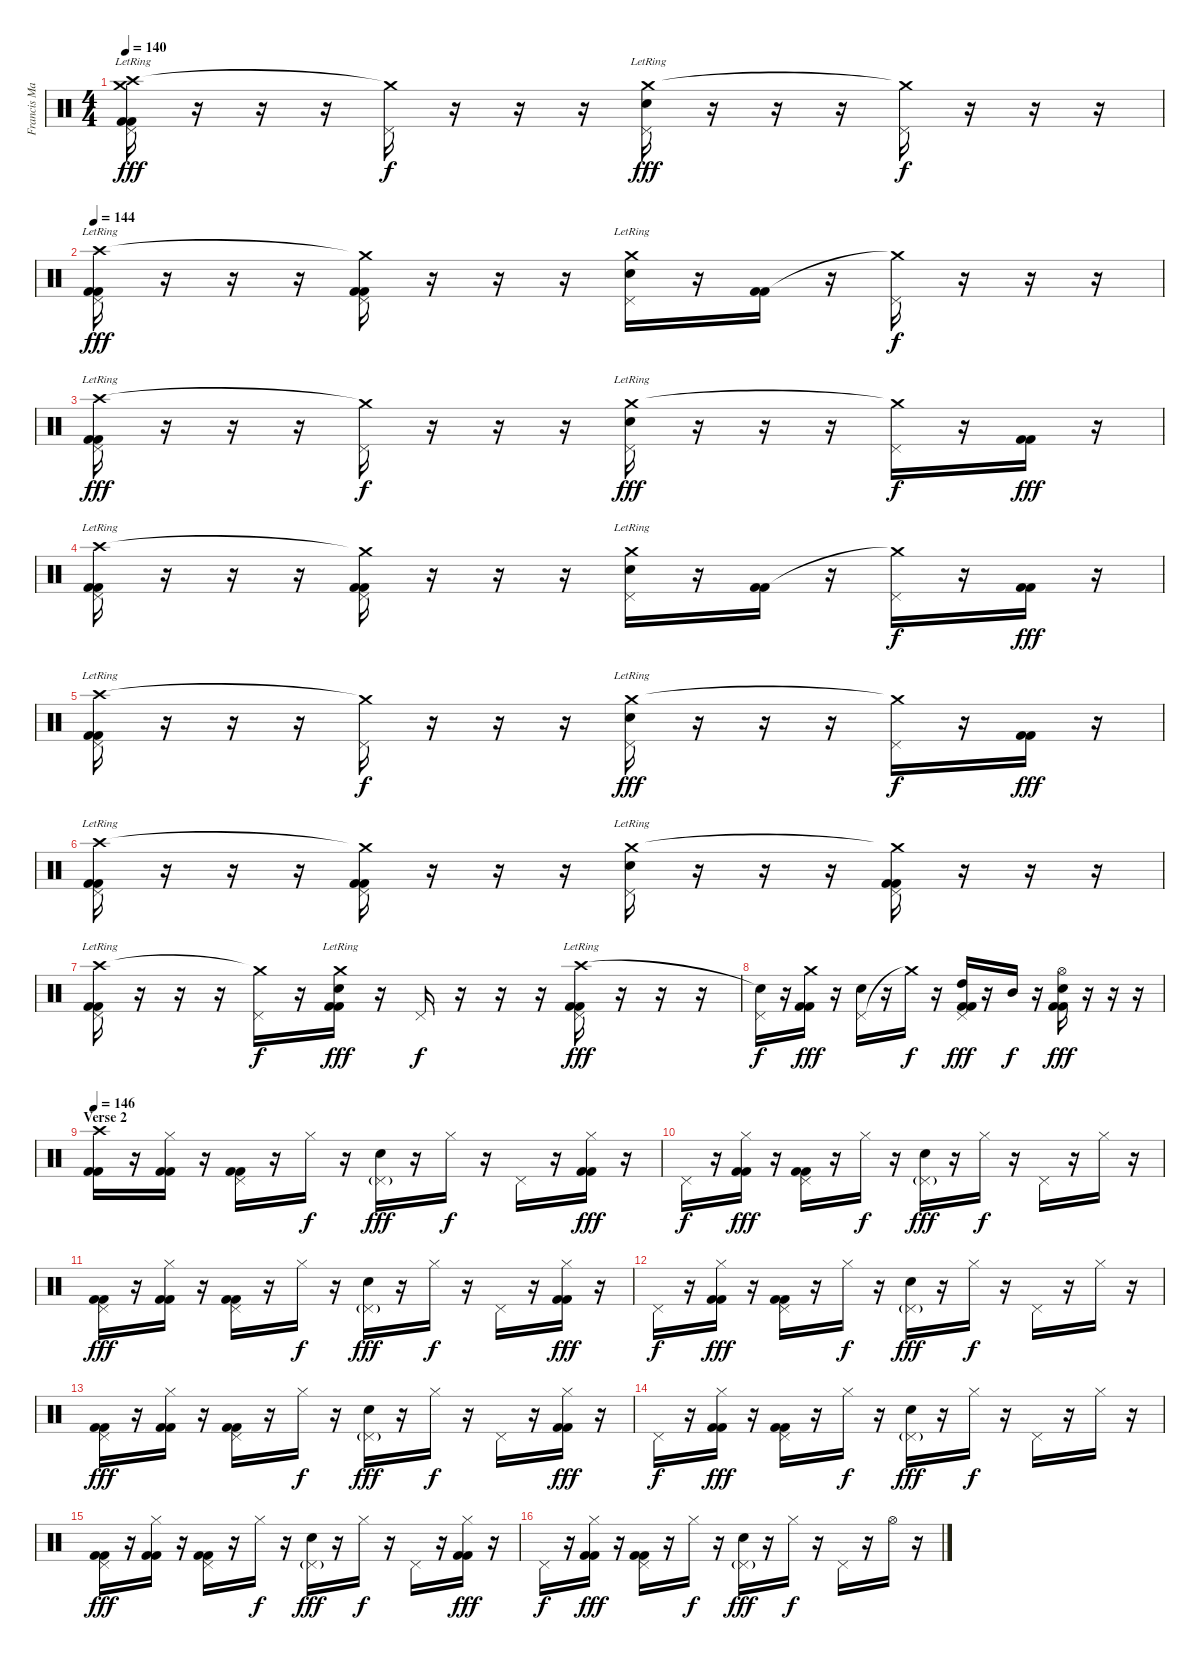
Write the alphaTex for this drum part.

\track ("Francis Mark" "Francis Ma") {instrument percussion}
\staff {score}
\articulation defaults
\ts (4 4)
\tempo 140
\clef neutral
\ks c
("Crash high (hit)"{lr} "Crash medium (hit)"{lr} "Pedal Hi-Hat (hit)" "Kick (hit) 2" "Kick (hit) 2").16{dy fff} r.16 r.16 r.16 ("Crash medium (hit)"{t} "Pedal Hi-Hat (hit)").16{dy f} r.16 r.16 r.16 ("Crash medium (hit)"{lr} "Pedal Hi-Hat (hit)" "Electric Snare (hit)").16{dy fff} r.16 r.16 r.16 ("Crash medium (hit)"{t} "Pedal Hi-Hat (hit)").16{dy f} r.16 r.16 r.16 |
\tempo 144
("Crash high (hit)"{lr} "Pedal Hi-Hat (hit)" "Kick (hit) 2" "Kick (hit) 2").16{dy fff} r.16 r.16 r.16 ("Crash medium (hit)"{t} "Pedal Hi-Hat (hit)" "Kick (hit) 2" "Kick (hit) 2").16 r.16 r.16 r.16 ("Crash medium (hit)"{lr} "Pedal Hi-Hat (hit)" "Electric Snare (hit)").16 r.16 ("Kick (hit) 2" "Kick (hit) 2").16 r.16 ("Crash medium (hit)"{t} "Pedal Hi-Hat (hit)").16{dy f} r.16 r.16 r.16 |
("Crash high (hit)"{lr} "Pedal Hi-Hat (hit)" "Kick (hit) 2" "Kick (hit) 2").16{dy fff} r.16 r.16 r.16 ("Crash medium (hit)"{t} "Pedal Hi-Hat (hit)").16{dy f} r.16 r.16 r.16 ("Crash medium (hit)"{lr} "Pedal Hi-Hat (hit)" "Electric Snare (hit)").16{dy fff} r.16 r.16 r.16 ("Crash medium (hit)"{t} "Pedal Hi-Hat (hit)").16{dy f} r.16 ("Kick (hit) 2" "Kick (hit) 2").16{dy fff} r.16 |
("Crash high (hit)"{lr} "Pedal Hi-Hat (hit)" "Kick (hit) 2" "Kick (hit) 2").16 r.16 r.16 r.16 ("Crash medium (hit)"{t} "Pedal Hi-Hat (hit)" "Kick (hit) 2" "Kick (hit) 2").16 r.16 r.16 r.16 ("Crash medium (hit)"{lr} "Pedal Hi-Hat (hit)" "Electric Snare (hit)").16 r.16 ("Kick (hit) 2" "Kick (hit) 2").16 r.16 ("Crash medium (hit)"{t} "Pedal Hi-Hat (hit)").16{dy f} r.16 ("Kick (hit) 2" "Kick (hit) 2").16{dy fff} r.16 |
("Crash high (hit)"{lr} "Pedal Hi-Hat (hit)" "Kick (hit) 2" "Kick (hit) 2").16 r.16 r.16 r.16 ("Crash medium (hit)"{t} "Pedal Hi-Hat (hit)").16{dy f} r.16 r.16 r.16 ("Crash medium (hit)"{lr} "Pedal Hi-Hat (hit)" "Electric Snare (hit)").16{dy fff} r.16 r.16 r.16 ("Crash medium (hit)"{t} "Pedal Hi-Hat (hit)").16{dy f} r.16 ("Kick (hit) 2" "Kick (hit) 2").16{dy fff} r.16 |
("Crash high (hit)"{lr} "Pedal Hi-Hat (hit)" "Kick (hit) 2" "Kick (hit) 2").16 r.16 r.16 r.16 ("Crash medium (hit)"{t} "Pedal Hi-Hat (hit)" "Kick (hit) 2" "Kick (hit) 2").16 r.16 r.16 r.16 ("Crash medium (hit)"{lr} "Pedal Hi-Hat (hit)" "Electric Snare (hit)").16 r.16 r.16 r.16 ("Crash medium (hit)"{t} "Pedal Hi-Hat (hit)" "Kick (hit) 2" "Kick (hit) 2").16 r.16 r.16 r.16 |
("Crash high (hit)"{lr} "Pedal Hi-Hat (hit)" "Kick (hit) 2" "Kick (hit) 2").16 r.16 r.16 r.16 ("Crash medium (hit)"{t} "Pedal Hi-Hat (hit)").16{dy f} r.16 ("Crash medium (hit)"{lr} "Electric Snare (hit)" "Kick (hit) 2" "Kick (hit) 2").16{dy fff} r.16 "Pedal Hi-Hat (hit)".16{dy f} r.16 r.16 r.16 ("Crash high (hit)"{lr} "Pedal Hi-Hat (hit)" "Kick (hit) 2" "Kick (hit) 2").16{dy fff} r.16 r.16 r.16 |
("Snare (hit)"{t} "Pedal Hi-Hat (hit)").16{dy f} r.16 ("Crash medium (hit)" "Kick (hit) 2" "Kick (hit) 2").16{dy fff} r.16 ("Pedal Hi-Hat (hit)" "Electric Snare (hit)").16 r.16 "Crash medium (hit)"{t}.16{dy f} r.16 ("High Tom (hit)" "Pedal Hi-Hat (hit)" "Kick (hit) 2" "Kick (hit) 2").16{dy fff} r.16 "Mid Tom (hit)".16{dy f} r.16 ("Hi-Hat (open)" "Electric Snare (hit)" "Kick (hit) 2" "Kick (hit) 2").16{dy fff} r.16 r.16 r.16 |
\section ("" "Verse 2")
\tempo 146
("Crash high (hit)" "Kick (hit) 2" "Kick (hit) 2").16 r.16 ("Hi-Hat (closed)" "Kick (hit) 2" "Kick (hit) 2").16 r.16 ("Pedal Hi-Hat (hit)" "Kick (hit) 2" "Kick (hit) 2").16 r.16 "Hi-Hat (closed)".16{dy f} r.16 ("Pedal Hi-Hat (hit)"{g} "Electric Snare (hit)").16{dy fff} r.16 "Hi-Hat (closed)".16{dy f} r.16 "Pedal Hi-Hat (hit)".16 r.16 ("Hi-Hat (closed)" "Kick (hit) 2" "Kick (hit) 2").16{dy fff} r.16 |
"Pedal Hi-Hat (hit)".16{dy f} r.16 ("Hi-Hat (closed)" "Kick (hit) 2" "Kick (hit) 2").16{dy fff} r.16 ("Pedal Hi-Hat (hit)" "Kick (hit) 2" "Kick (hit) 2").16 r.16 "Hi-Hat (closed)".16{dy f} r.16 ("Pedal Hi-Hat (hit)"{g} "Electric Snare (hit)").16{dy fff} r.16 "Hi-Hat (closed)".16{dy f} r.16 "Pedal Hi-Hat (hit)".16 r.16 "Hi-Hat (closed)".16 r.16 |
("Pedal Hi-Hat (hit)" "Kick (hit) 2" "Kick (hit) 2").16{dy fff} r.16 ("Hi-Hat (closed)" "Kick (hit) 2" "Kick (hit) 2").16 r.16 ("Pedal Hi-Hat (hit)" "Kick (hit) 2" "Kick (hit) 2").16 r.16 "Hi-Hat (closed)".16{dy f} r.16 ("Pedal Hi-Hat (hit)"{g} "Electric Snare (hit)").16{dy fff} r.16 "Hi-Hat (closed)".16{dy f} r.16 "Pedal Hi-Hat (hit)".16 r.16 ("Hi-Hat (closed)" "Kick (hit) 2" "Kick (hit) 2").16{dy fff} r.16 |
"Pedal Hi-Hat (hit)".16{dy f} r.16 ("Hi-Hat (closed)" "Kick (hit) 2" "Kick (hit) 2").16{dy fff} r.16 ("Pedal Hi-Hat (hit)" "Kick (hit) 2" "Kick (hit) 2").16 r.16 "Hi-Hat (closed)".16{dy f} r.16 ("Pedal Hi-Hat (hit)"{g} "Electric Snare (hit)").16{dy fff} r.16 "Hi-Hat (closed)".16{dy f} r.16 "Pedal Hi-Hat (hit)".16 r.16 "Hi-Hat (closed)".16 r.16 |
("Pedal Hi-Hat (hit)" "Kick (hit) 2" "Kick (hit) 2").16{dy fff} r.16 ("Hi-Hat (closed)" "Kick (hit) 2" "Kick (hit) 2").16 r.16 ("Pedal Hi-Hat (hit)" "Kick (hit) 2" "Kick (hit) 2").16 r.16 "Hi-Hat (closed)".16{dy f} r.16 ("Pedal Hi-Hat (hit)"{g} "Electric Snare (hit)").16{dy fff} r.16 "Hi-Hat (closed)".16{dy f} r.16 "Pedal Hi-Hat (hit)".16 r.16 ("Hi-Hat (closed)" "Kick (hit) 2" "Kick (hit) 2").16{dy fff} r.16 |
"Pedal Hi-Hat (hit)".16{dy f} r.16 ("Hi-Hat (closed)" "Kick (hit) 2" "Kick (hit) 2").16{dy fff} r.16 ("Pedal Hi-Hat (hit)" "Kick (hit) 2" "Kick (hit) 2").16 r.16 "Hi-Hat (closed)".16{dy f} r.16 ("Pedal Hi-Hat (hit)"{g} "Electric Snare (hit)").16{dy fff} r.16 "Hi-Hat (closed)".16{dy f} r.16 "Pedal Hi-Hat (hit)".16 r.16 "Hi-Hat (closed)".16 r.16 |
("Pedal Hi-Hat (hit)" "Kick (hit) 2" "Kick (hit) 2").16{dy fff} r.16 ("Hi-Hat (closed)" "Kick (hit) 2" "Kick (hit) 2").16 r.16 ("Pedal Hi-Hat (hit)" "Kick (hit) 2" "Kick (hit) 2").16 r.16 "Hi-Hat (closed)".16{dy f} r.16 ("Pedal Hi-Hat (hit)"{g} "Electric Snare (hit)").16{dy fff} r.16 "Hi-Hat (closed)".16{dy f} r.16 "Pedal Hi-Hat (hit)".16 r.16 ("Hi-Hat (closed)" "Kick (hit) 2" "Kick (hit) 2").16{dy fff} r.16 |
"Pedal Hi-Hat (hit)".16{dy f} r.16 ("Hi-Hat (closed)" "Kick (hit) 2" "Kick (hit) 2").16{dy fff} r.16 ("Pedal Hi-Hat (hit)" "Kick (hit) 2" "Kick (hit) 2").16 r.16 "Hi-Hat (closed)".16{dy f} r.16 ("Pedal Hi-Hat (hit)"{g} "Electric Snare (hit)").16{dy fff} r.16 "Hi-Hat (closed)".16{dy f} r.16 "Pedal Hi-Hat (hit)".16 r.16 "Hi-Hat (open)".16 r.16
